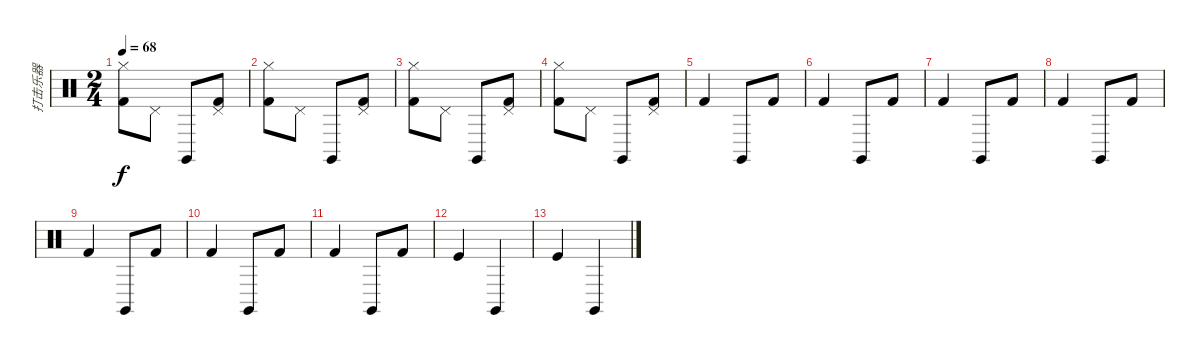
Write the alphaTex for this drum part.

\track ("打击乐器" "打击乐器") {instrument percussion}
\staff {score}
\articulation defaults
\ts (2 4)
\tempo 68
\clef neutral
\ks c
("Kick (hit) 2" "Hi-Hat (closed)").8{dy f} "Pedal Hi-Hat (hit)".8 "Claves (hit)".8 ("Kick (hit) 2" "Pedal Hi-Hat (hit)").8 |
("Kick (hit) 2" "Hi-Hat (closed)").8 "Pedal Hi-Hat (hit)".8 "Claves (hit)".8 ("Kick (hit) 2" "Pedal Hi-Hat (hit)").8 |
("Kick (hit) 2" "Hi-Hat (closed)").8 "Pedal Hi-Hat (hit)".8 "Claves (hit)".8 ("Kick (hit) 2" "Pedal Hi-Hat (hit)").8 |
("Kick (hit) 2" "Hi-Hat (closed)").8 "Pedal Hi-Hat (hit)".8 "Claves (hit)".8 ("Kick (hit) 2" "Pedal Hi-Hat (hit)").8 |
"Kick (hit) 2".4 "Claves (hit)".8 "Kick (hit) 2".8 |
"Kick (hit) 2".4 "Claves (hit)".8 "Kick (hit) 2".8 |
"Kick (hit) 2".4 "Claves (hit)".8 "Kick (hit) 2".8 |
"Kick (hit) 2".4 "Claves (hit)".8 "Kick (hit) 2".8 |
"Kick (hit) 2".4 "Claves (hit)".8 "Kick (hit) 2".8 |
"Kick (hit) 2".4 "Claves (hit)".8 "Kick (hit) 2".8 |
"Kick (hit) 2".4 "Claves (hit)".8 "Kick (hit) 2".8 |
"Kick (hit)".4 "Claves (hit)".4 |
"Kick (hit)".4 "Claves (hit)".4
